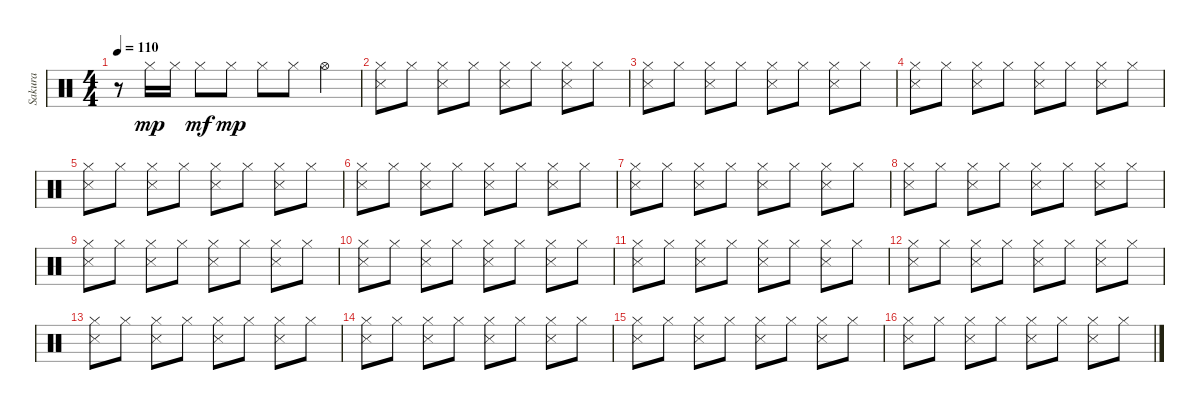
\track ("Sakura" "Sakura") {instrument percussion}
\staff {score}
\articulation defaults
\ts (4 4)
\tempo 110
\clef neutral
\ks c
r.8{dy mp} "Hi-Hat (closed)".16{volume 15 balance 8} "Hi-Hat (closed)".16 "Hi-Hat (closed)".8{dy mf} "Hi-Hat (closed)".8{dy mp} "Hi-Hat (closed)".8 "Hi-Hat (closed)".8 "Hi-Hat (open)".4 |
("Hi-Hat (closed)" "Snare (side stick) 3").8 "Hi-Hat (closed)".8 ("Hi-Hat (closed)" "Snare (side stick) 3").8 "Hi-Hat (closed)".8 ("Hi-Hat (closed)" "Snare (side stick) 3").8 "Hi-Hat (closed)".8 ("Hi-Hat (closed)" "Snare (side stick) 3").8 "Hi-Hat (closed)".8 |
("Hi-Hat (closed)" "Snare (side stick) 3").8 "Hi-Hat (closed)".8 ("Hi-Hat (closed)" "Snare (side stick) 3").8 "Hi-Hat (closed)".8 ("Hi-Hat (closed)" "Snare (side stick) 3").8 "Hi-Hat (closed)".8 ("Hi-Hat (closed)" "Snare (side stick) 3").8 "Hi-Hat (closed)".8 |
("Hi-Hat (closed)" "Snare (side stick) 3").8 "Hi-Hat (closed)".8 ("Hi-Hat (closed)" "Snare (side stick) 3").8 "Hi-Hat (closed)".8 ("Hi-Hat (closed)" "Snare (side stick) 3").8 "Hi-Hat (closed)".8 ("Hi-Hat (closed)" "Snare (side stick) 3").8 "Hi-Hat (closed)".8 |
("Hi-Hat (closed)" "Snare (side stick) 3").8 "Hi-Hat (closed)".8 ("Hi-Hat (closed)" "Snare (side stick) 3").8 "Hi-Hat (closed)".8 ("Hi-Hat (closed)" "Snare (side stick) 3").8 "Hi-Hat (closed)".8 ("Hi-Hat (closed)" "Snare (side stick) 3").8 "Hi-Hat (closed)".8 |
("Hi-Hat (closed)" "Snare (side stick) 3").8 "Hi-Hat (closed)".8 ("Hi-Hat (closed)" "Snare (side stick) 3").8 "Hi-Hat (closed)".8 ("Hi-Hat (closed)" "Snare (side stick) 3").8 "Hi-Hat (closed)".8 ("Hi-Hat (closed)" "Snare (side stick) 3").8 "Hi-Hat (closed)".8 |
("Hi-Hat (closed)" "Snare (side stick) 3").8 "Hi-Hat (closed)".8 ("Hi-Hat (closed)" "Snare (side stick) 3").8 "Hi-Hat (closed)".8 ("Hi-Hat (closed)" "Snare (side stick) 3").8 "Hi-Hat (closed)".8 ("Hi-Hat (closed)" "Snare (side stick) 3").8 "Hi-Hat (closed)".8 |
("Hi-Hat (closed)" "Snare (side stick) 3").8 "Hi-Hat (closed)".8 ("Hi-Hat (closed)" "Snare (side stick) 3").8 "Hi-Hat (closed)".8 ("Hi-Hat (closed)" "Snare (side stick) 3").8 "Hi-Hat (closed)".8 ("Hi-Hat (closed)" "Snare (side stick) 3").8 "Hi-Hat (closed)".8 |
("Hi-Hat (closed)" "Snare (side stick) 3").8 "Hi-Hat (closed)".8 ("Hi-Hat (closed)" "Snare (side stick) 3").8 "Hi-Hat (closed)".8 ("Hi-Hat (closed)" "Snare (side stick) 3").8 "Hi-Hat (closed)".8 ("Hi-Hat (closed)" "Snare (side stick) 3").8 "Hi-Hat (closed)".8 |
("Hi-Hat (closed)" "Snare (side stick) 3").8 "Hi-Hat (closed)".8 ("Hi-Hat (closed)" "Snare (side stick) 3").8 "Hi-Hat (closed)".8 ("Hi-Hat (closed)" "Snare (side stick) 3").8 "Hi-Hat (closed)".8 ("Hi-Hat (closed)" "Snare (side stick) 3").8 "Hi-Hat (closed)".8 |
("Hi-Hat (closed)" "Snare (side stick) 3").8 "Hi-Hat (closed)".8 ("Hi-Hat (closed)" "Snare (side stick) 3").8 "Hi-Hat (closed)".8 ("Hi-Hat (closed)" "Snare (side stick) 3").8 "Hi-Hat (closed)".8 ("Hi-Hat (closed)" "Snare (side stick) 3").8 "Hi-Hat (closed)".8 |
("Hi-Hat (closed)" "Snare (side stick) 3").8 "Hi-Hat (closed)".8 ("Hi-Hat (closed)" "Snare (side stick) 3").8 "Hi-Hat (closed)".8 ("Hi-Hat (closed)" "Snare (side stick) 3").8 "Hi-Hat (closed)".8 ("Hi-Hat (closed)" "Snare (side stick) 3").8 "Hi-Hat (closed)".8 |
("Hi-Hat (closed)" "Snare (side stick) 3").8 "Hi-Hat (closed)".8 ("Hi-Hat (closed)" "Snare (side stick) 3").8 "Hi-Hat (closed)".8 ("Hi-Hat (closed)" "Snare (side stick) 3").8 "Hi-Hat (closed)".8 ("Hi-Hat (closed)" "Snare (side stick) 3").8 "Hi-Hat (closed)".8 |
("Hi-Hat (closed)" "Snare (side stick) 3").8 "Hi-Hat (closed)".8 ("Hi-Hat (closed)" "Snare (side stick) 3").8 "Hi-Hat (closed)".8 ("Hi-Hat (closed)" "Snare (side stick) 3").8 "Hi-Hat (closed)".8 ("Hi-Hat (closed)" "Snare (side stick) 3").8 "Hi-Hat (closed)".8 |
("Hi-Hat (closed)" "Snare (side stick) 3").8 "Hi-Hat (closed)".8 ("Hi-Hat (closed)" "Snare (side stick) 3").8 "Hi-Hat (closed)".8 ("Hi-Hat (closed)" "Snare (side stick) 3").8 "Hi-Hat (closed)".8 ("Hi-Hat (closed)" "Snare (side stick) 3").8 "Hi-Hat (closed)".8 |
("Hi-Hat (closed)" "Snare (side stick) 3").8 "Hi-Hat (closed)".8 ("Hi-Hat (closed)" "Snare (side stick) 3").8 "Hi-Hat (closed)".8 ("Hi-Hat (closed)" "Snare (side stick) 3").8 "Hi-Hat (closed)".8 ("Hi-Hat (closed)" "Snare (side stick) 3").8 "Hi-Hat (closed)".8
